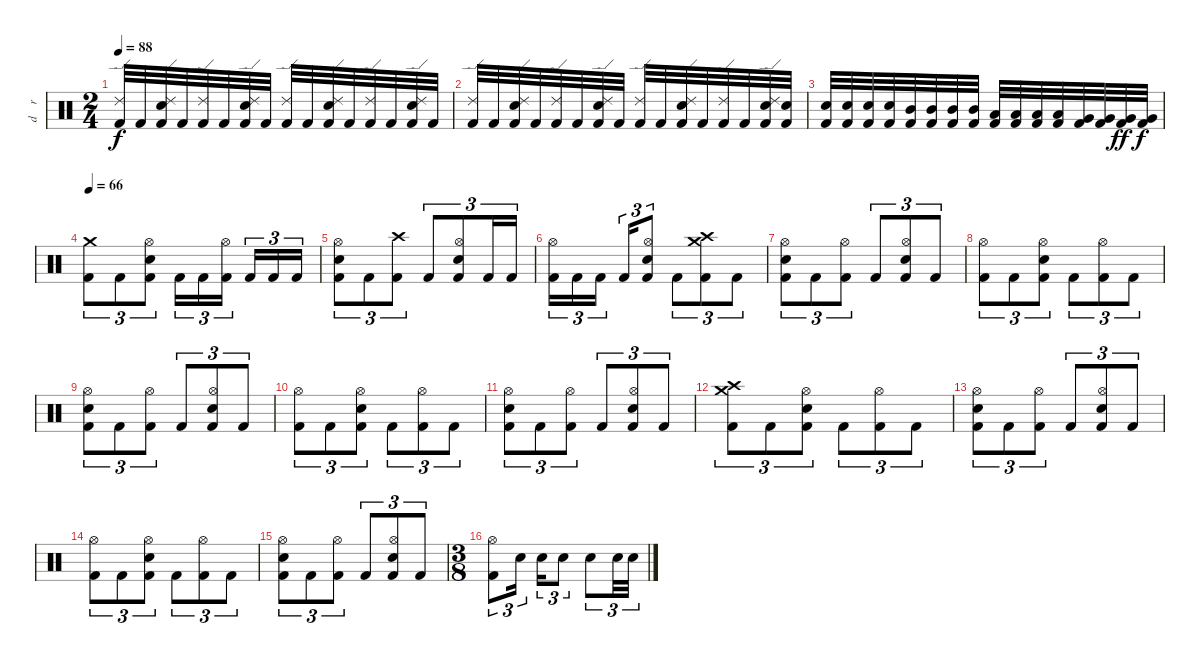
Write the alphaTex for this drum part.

\track ("d    r     u    m    s" "d    r    ") {instrument percussion}
\staff {score}
\articulation defaults
\ts (2 4)
\tempo 88
\clef neutral
\ks c
("Ride (edge) 2" "Kick (hit) 2").32{dy f} "Kick (hit) 2".32 ("Ride (edge) 2" "Electric Snare (hit)" "Kick (hit) 2").32 "Kick (hit) 2".32 ("Ride (edge) 2" "Kick (hit) 2").32 "Kick (hit) 2".32 ("Ride (edge) 2" "Electric Snare (hit)" "Kick (hit) 2").32 "Kick (hit) 2".32 ("Ride (edge) 2" "Kick (hit) 2").32 "Kick (hit) 2".32 ("Ride (edge) 2" "Electric Snare (hit)" "Kick (hit) 2").32 "Kick (hit) 2".32 ("Ride (edge) 2" "Kick (hit) 2").32 "Kick (hit) 2".32 ("Ride (edge) 2" "Electric Snare (hit)" "Kick (hit) 2").32 "Kick (hit) 2".32 |
("Ride (edge) 2" "Kick (hit) 2").32 "Kick (hit) 2".32 ("Ride (edge) 2" "Electric Snare (hit)" "Kick (hit) 2").32 "Kick (hit) 2".32 ("Ride (edge) 2" "Kick (hit) 2").32 "Kick (hit) 2".32 ("Ride (edge) 2" "Electric Snare (hit)" "Kick (hit) 2").32 "Kick (hit) 2".32 ("Ride (edge) 2" "Kick (hit) 2").32 "Kick (hit) 2".32 ("Ride (edge) 2" "Electric Snare (hit)" "Kick (hit) 2").32 "Kick (hit) 2".32 ("Ride (edge) 2" "Kick (hit) 2").32 "Kick (hit) 2".32 ("Ride (edge) 2" "Electric Snare (hit)" "Kick (hit) 2").32 ("Electric Snare (hit)" "Kick (hit) 2").32 |
("Electric Snare (hit)" "Kick (hit) 2").32 ("Electric Snare (hit)" "Kick (hit) 2").32 ("Electric Snare (hit)" "Kick (hit) 2").32 ("Electric Snare (hit)" "Kick (hit) 2").32 ("Mid Tom (hit)" "Kick (hit) 2").32 ("Mid Tom (hit)" "Kick (hit) 2").32 ("Mid Tom (hit)" "Kick (hit) 2").32 ("Mid Tom (hit)" "Kick (hit) 2").32 ("Low Tom (hit)" "Kick (hit) 2").32 ("Low Tom (hit)" "Kick (hit) 2").32 ("Low Tom (hit)" "Kick (hit) 2").32 ("Low Tom (hit)" "Kick (hit) 2").32 ("Very Low Tom (hit)" "Kick (hit) 2").32 ("Very Low Tom (hit)" "Kick (hit) 2").32 ("Very Low Tom (hit)" "Kick (hit) 2").32{dy ff} ("Very Low Tom (hit)" "Kick (hit) 2").32{dy f} |
\tempo 66
("Crash medium (hit)" "Kick (hit) 2").8{tu (3 2)} "Kick (hit) 2".8{tu (3 2)} ("Hi-Hat (open)" "Snare (hit) 2" "Kick (hit) 2").8{tu (3 2)} "Kick (hit) 2".16{tu (3 2)} "Kick (hit) 2".16{tu (3 2)} ("Hi-Hat (open)" "Kick (hit) 2").16{tu (3 2) beam splitsecondary} "Kick (hit) 2".16{tu (3 2)} "Kick (hit) 2".16{tu (3 2)} "Kick (hit) 2".16{tu (3 2)} |
("Hi-Hat (open)" "Snare (hit) 2" "Kick (hit) 2").8{tu (3 2)} "Kick (hit) 2".8{tu (3 2)} ("Crash high (hit)" "Kick (hit) 2").8{tu (3 2)} "Kick (hit) 2".8{tu (3 2)} ("Hi-Hat (open)" "Snare (hit) 2" "Kick (hit) 2").8{tu (3 2)} "Kick (hit) 2".16{tu (3 2)} "Kick (hit) 2".16{tu (3 2)} |
("Hi-Hat (open)" "Kick (hit) 2").16{tu (3 2)} "Kick (hit) 2".16{tu (3 2)} "Kick (hit) 2".16{tu (3 2) beam splitsecondary} "Kick (hit) 2".16{tu (3 2)} ("Hi-Hat (open)" "Snare (hit) 2" "Kick (hit) 2").8{tu (3 2)} "Kick (hit) 2".8{tu (3 2)} ("Crash high (hit)" "Crash medium (hit)" "Kick (hit) 2").8{tu (3 2)} "Kick (hit) 2".8{tu (3 2)} |
("Hi-Hat (open)" "Snare (hit) 2" "Kick (hit) 2").8{tu (3 2)} "Kick (hit) 2".8{tu (3 2)} ("Hi-Hat (open)" "Kick (hit) 2").8{tu (3 2)} "Kick (hit) 2".8{tu (3 2)} ("Hi-Hat (open)" "Snare (hit) 2" "Kick (hit) 2").8{tu (3 2)} "Kick (hit) 2".8{tu (3 2)} |
("Hi-Hat (open)" "Kick (hit) 2").8{tu (3 2)} "Kick (hit) 2".8{tu (3 2)} ("Hi-Hat (open)" "Snare (hit) 2" "Kick (hit) 2").8{tu (3 2)} "Kick (hit) 2".8{tu (3 2)} ("Hi-Hat (open)" "Kick (hit) 2").8{tu (3 2)} "Kick (hit) 2".8{tu (3 2)} |
("Hi-Hat (open)" "Snare (hit) 2" "Kick (hit) 2").8{tu (3 2)} "Kick (hit) 2".8{tu (3 2)} ("Hi-Hat (open)" "Kick (hit) 2").8{tu (3 2)} "Kick (hit) 2".8{tu (3 2)} ("Hi-Hat (open)" "Snare (hit) 2" "Kick (hit) 2").8{tu (3 2)} "Kick (hit) 2".8{tu (3 2)} |
("Hi-Hat (open)" "Kick (hit) 2").8{tu (3 2)} "Kick (hit) 2".8{tu (3 2)} ("Hi-Hat (open)" "Snare (hit) 2" "Kick (hit) 2").8{tu (3 2)} "Kick (hit) 2".8{tu (3 2)} ("Hi-Hat (open)" "Kick (hit) 2").8{tu (3 2)} "Kick (hit) 2".8{tu (3 2)} |
("Hi-Hat (open)" "Snare (hit) 2" "Kick (hit) 2").8{tu (3 2)} "Kick (hit) 2".8{tu (3 2)} ("Hi-Hat (open)" "Kick (hit) 2").8{tu (3 2)} "Kick (hit) 2".8{tu (3 2)} ("Hi-Hat (open)" "Snare (hit) 2" "Kick (hit) 2").8{tu (3 2)} "Kick (hit) 2".8{tu (3 2)} |
("Crash high (hit)" "Crash medium (hit)" "Kick (hit) 2").8{tu (3 2)} "Kick (hit) 2".8{tu (3 2)} ("Hi-Hat (open)" "Snare (hit) 2" "Kick (hit) 2").8{tu (3 2)} "Kick (hit) 2".8{tu (3 2)} ("Hi-Hat (open)" "Kick (hit) 2").8{tu (3 2)} "Kick (hit) 2".8{tu (3 2)} |
("Hi-Hat (open)" "Snare (hit) 2" "Kick (hit) 2").8{tu (3 2)} "Kick (hit) 2".8{tu (3 2)} ("Hi-Hat (open)" "Kick (hit) 2").8{tu (3 2)} "Kick (hit) 2".8{tu (3 2)} ("Hi-Hat (open)" "Snare (hit) 2" "Kick (hit) 2").8{tu (3 2)} "Kick (hit) 2".8{tu (3 2)} |
("Hi-Hat (open)" "Kick (hit) 2").8{tu (3 2)} "Kick (hit) 2".8{tu (3 2)} ("Hi-Hat (open)" "Snare (hit) 2" "Kick (hit) 2").8{tu (3 2)} "Kick (hit) 2".8{tu (3 2)} ("Hi-Hat (open)" "Kick (hit) 2").8{tu (3 2)} "Kick (hit) 2".8{tu (3 2)} |
("Hi-Hat (open)" "Snare (hit) 2" "Kick (hit) 2").8{tu (3 2)} "Kick (hit) 2".8{tu (3 2)} ("Hi-Hat (open)" "Kick (hit) 2").8{tu (3 2)} "Kick (hit) 2".8{tu (3 2)} ("Hi-Hat (open)" "Snare (hit) 2" "Kick (hit) 2").8{tu (3 2)} "Kick (hit) 2".8{tu (3 2)} |
\ts (3 8)
("Hi-Hat (open)" "Kick (hit) 2").8{tu (3 2)} "Snare (hit) 2".16{tu (3 2)} "Snare (hit) 2".16{tu (3 2)} "Snare (hit) 2".8{tu (3 2)} "Snare (hit) 2".8{tu (3 2)} "Snare (hit) 2".32{tu (3 2)} "Snare (hit) 2".32{tu (3 2)}
